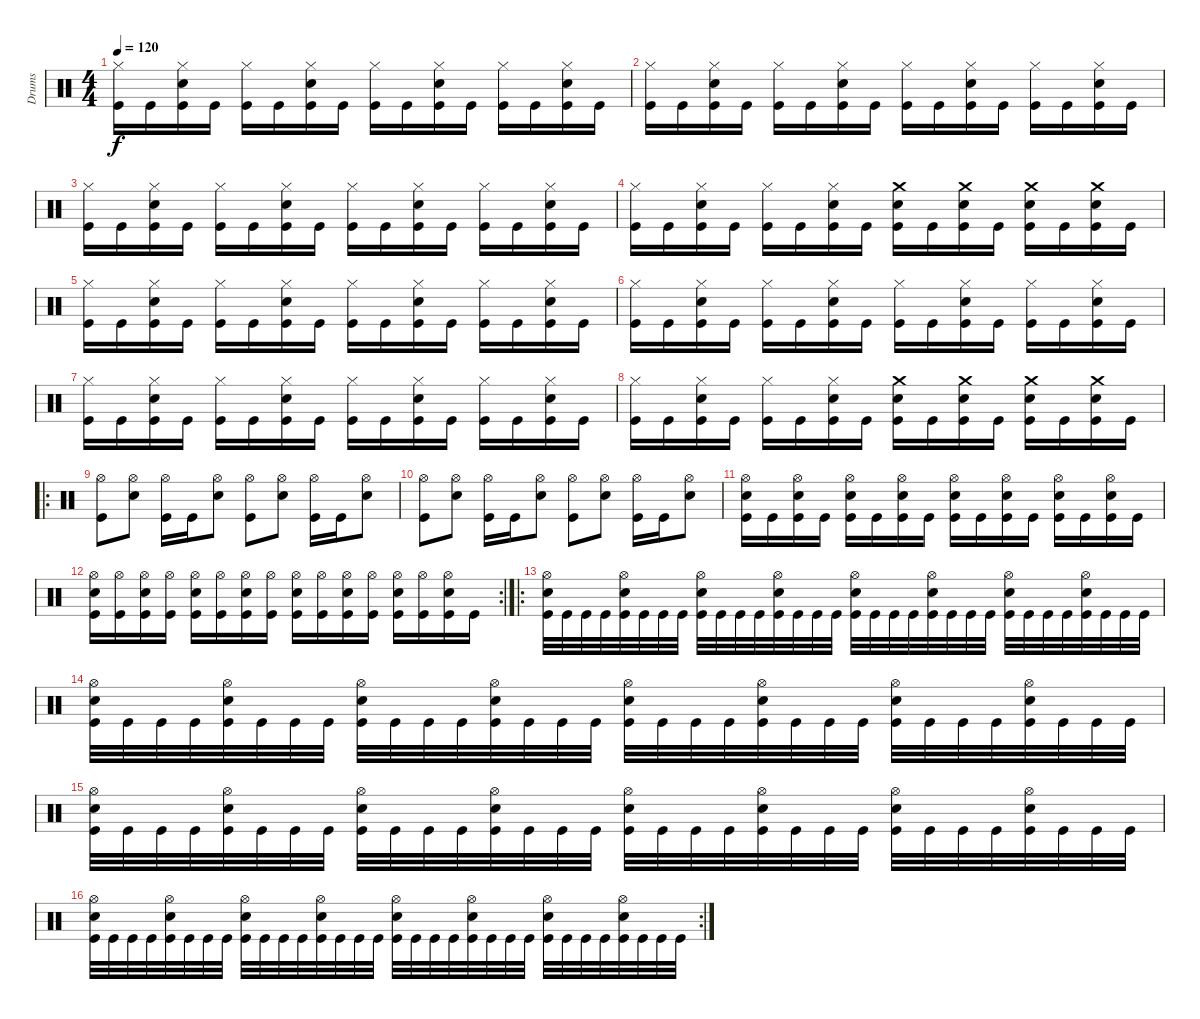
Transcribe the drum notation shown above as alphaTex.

\track ("Drums" "Drums") {instrument percussion}
\staff {score}
\articulation defaults
\ts (4 4)
\tempo 120
\clef neutral
\ks c
("Hi-Hat (closed)" "Kick (hit)").16{dy f} "Kick (hit)".16 ("Hi-Hat (closed)" "Snare (hit) 2" "Kick (hit)").16 "Kick (hit)".16 ("Hi-Hat (closed)" "Kick (hit)").16 "Kick (hit)".16 ("Hi-Hat (closed)" "Snare (hit) 2" "Kick (hit)").16 "Kick (hit)".16 ("Hi-Hat (closed)" "Kick (hit)").16 "Kick (hit)".16 ("Hi-Hat (closed)" "Snare (hit) 2" "Kick (hit)").16 "Kick (hit)".16 ("Hi-Hat (closed)" "Kick (hit)").16 "Kick (hit)".16 ("Hi-Hat (closed)" "Snare (hit) 2" "Kick (hit)").16 "Kick (hit)".16 |
("Hi-Hat (closed)" "Kick (hit)").16 "Kick (hit)".16 ("Hi-Hat (closed)" "Snare (hit) 2" "Kick (hit)").16 "Kick (hit)".16 ("Hi-Hat (closed)" "Kick (hit)").16 "Kick (hit)".16 ("Hi-Hat (closed)" "Snare (hit) 2" "Kick (hit)").16 "Kick (hit)".16 ("Hi-Hat (closed)" "Kick (hit)").16 "Kick (hit)".16 ("Hi-Hat (closed)" "Snare (hit) 2" "Kick (hit)").16 "Kick (hit)".16 ("Hi-Hat (closed)" "Kick (hit)").16 "Kick (hit)".16 ("Hi-Hat (closed)" "Snare (hit) 2" "Kick (hit)").16 "Kick (hit)".16 |
("Hi-Hat (closed)" "Kick (hit)").16 "Kick (hit)".16 ("Hi-Hat (closed)" "Snare (hit) 2" "Kick (hit)").16 "Kick (hit)".16 ("Hi-Hat (closed)" "Kick (hit)").16 "Kick (hit)".16 ("Hi-Hat (closed)" "Snare (hit) 2" "Kick (hit)").16 "Kick (hit)".16 ("Hi-Hat (closed)" "Kick (hit)").16 "Kick (hit)".16 ("Hi-Hat (closed)" "Snare (hit) 2" "Kick (hit)").16 "Kick (hit)".16 ("Hi-Hat (closed)" "Kick (hit)").16 "Kick (hit)".16 ("Hi-Hat (closed)" "Snare (hit) 2" "Kick (hit)").16 "Kick (hit)".16 |
("Hi-Hat (closed)" "Kick (hit)").16 "Kick (hit)".16 ("Hi-Hat (closed)" "Snare (hit) 2" "Kick (hit)").16 "Kick (hit)".16 ("Hi-Hat (closed)" "Kick (hit)").16 "Kick (hit)".16 ("Hi-Hat (closed)" "Snare (hit) 2" "Kick (hit)").16 "Kick (hit)".16 ("Crash medium (hit)" "Snare (hit) 2" "Kick (hit)").16 "Kick (hit)".16 ("Crash medium (hit)" "Snare (hit) 2" "Kick (hit)").16 "Kick (hit)".16 ("Crash medium (hit)" "Snare (hit) 2" "Kick (hit)").16 "Kick (hit)".16 ("Crash medium (hit)" "Snare (hit) 2" "Kick (hit)").16 "Kick (hit)".16 |
("Hi-Hat (closed)" "Kick (hit)").16 "Kick (hit)".16 ("Hi-Hat (closed)" "Snare (hit) 2" "Kick (hit)").16 "Kick (hit)".16 ("Hi-Hat (closed)" "Kick (hit)").16 "Kick (hit)".16 ("Hi-Hat (closed)" "Snare (hit) 2" "Kick (hit)").16 "Kick (hit)".16 ("Hi-Hat (closed)" "Kick (hit)").16 "Kick (hit)".16 ("Hi-Hat (closed)" "Snare (hit) 2" "Kick (hit)").16 "Kick (hit)".16 ("Hi-Hat (closed)" "Kick (hit)").16 "Kick (hit)".16 ("Hi-Hat (closed)" "Snare (hit) 2" "Kick (hit)").16 "Kick (hit)".16 |
("Hi-Hat (closed)" "Kick (hit)").16 "Kick (hit)".16 ("Hi-Hat (closed)" "Snare (hit) 2" "Kick (hit)").16 "Kick (hit)".16 ("Hi-Hat (closed)" "Kick (hit)").16 "Kick (hit)".16 ("Hi-Hat (closed)" "Snare (hit) 2" "Kick (hit)").16 "Kick (hit)".16 ("Hi-Hat (closed)" "Kick (hit)").16 "Kick (hit)".16 ("Hi-Hat (closed)" "Snare (hit) 2" "Kick (hit)").16 "Kick (hit)".16 ("Hi-Hat (closed)" "Kick (hit)").16 "Kick (hit)".16 ("Hi-Hat (closed)" "Snare (hit) 2" "Kick (hit)").16 "Kick (hit)".16 |
("Hi-Hat (closed)" "Kick (hit)").16 "Kick (hit)".16 ("Hi-Hat (closed)" "Snare (hit) 2" "Kick (hit)").16 "Kick (hit)".16 ("Hi-Hat (closed)" "Kick (hit)").16 "Kick (hit)".16 ("Hi-Hat (closed)" "Snare (hit) 2" "Kick (hit)").16 "Kick (hit)".16 ("Hi-Hat (closed)" "Kick (hit)").16 "Kick (hit)".16 ("Hi-Hat (closed)" "Snare (hit) 2" "Kick (hit)").16 "Kick (hit)".16 ("Hi-Hat (closed)" "Kick (hit)").16 "Kick (hit)".16 ("Hi-Hat (closed)" "Snare (hit) 2" "Kick (hit)").16 "Kick (hit)".16 |
("Hi-Hat (closed)" "Kick (hit)").16 "Kick (hit)".16 ("Hi-Hat (closed)" "Snare (hit) 2" "Kick (hit)").16 "Kick (hit)".16 ("Hi-Hat (closed)" "Kick (hit)").16 "Kick (hit)".16 ("Hi-Hat (closed)" "Snare (hit) 2" "Kick (hit)").16 "Kick (hit)".16 ("Crash medium (hit)" "Snare (hit) 2" "Kick (hit)").16 "Kick (hit)".16 ("Crash medium (hit)" "Snare (hit) 2" "Kick (hit)").16 "Kick (hit)".16 ("Crash medium (hit)" "Snare (hit) 2" "Kick (hit)").16 "Kick (hit)".16 ("Crash medium (hit)" "Snare (hit) 2" "Kick (hit)").16 "Kick (hit)".16 |
\ro
("Hi-Hat (open)" "Kick (hit)").8 ("Hi-Hat (open)" "Snare (hit) 2").8 ("Hi-Hat (open)" "Kick (hit)").16 "Kick (hit)".16 ("Hi-Hat (open)" "Snare (hit) 2").8 ("Hi-Hat (open)" "Kick (hit)").8 ("Hi-Hat (open)" "Snare (hit) 2").8 ("Hi-Hat (open)" "Kick (hit)").16 "Kick (hit)".16 ("Hi-Hat (open)" "Snare (hit) 2").8 |
("Hi-Hat (open)" "Kick (hit)").8 ("Hi-Hat (open)" "Snare (hit) 2").8 ("Hi-Hat (open)" "Kick (hit)").16 "Kick (hit)".16 ("Hi-Hat (open)" "Snare (hit) 2").8 ("Hi-Hat (open)" "Kick (hit)").8 ("Hi-Hat (open)" "Snare (hit) 2").8 ("Hi-Hat (open)" "Kick (hit)").16 "Kick (hit)".16 ("Hi-Hat (open)" "Snare (hit) 2").8 |
("Hi-Hat (open)" "Snare (hit) 2" "Kick (hit)").16 "Kick (hit)".16 ("Hi-Hat (open)" "Snare (hit) 2" "Kick (hit)").16 "Kick (hit)".16 ("Hi-Hat (open)" "Snare (hit) 2" "Kick (hit)").16 "Kick (hit)".16 ("Hi-Hat (open)" "Snare (hit) 2" "Kick (hit)").16 "Kick (hit)".16 ("Hi-Hat (open)" "Snare (hit) 2" "Kick (hit)").16 "Kick (hit)".16 ("Hi-Hat (open)" "Snare (hit) 2" "Kick (hit)").16 "Kick (hit)".16 ("Hi-Hat (open)" "Snare (hit) 2" "Kick (hit)").16 "Kick (hit)".16 ("Hi-Hat (open)" "Snare (hit) 2" "Kick (hit)").16 "Kick (hit)".16 |
\rc 2
("Hi-Hat (open)" "Snare (hit) 2" "Kick (hit)").16 ("Hi-Hat (open)" "Kick (hit)").16 ("Hi-Hat (open)" "Snare (hit) 2" "Kick (hit)").16 ("Hi-Hat (open)" "Kick (hit)").16 ("Hi-Hat (open)" "Snare (hit) 2" "Kick (hit)").16 ("Hi-Hat (open)" "Kick (hit)").16 ("Hi-Hat (open)" "Snare (hit) 2" "Kick (hit)").16 ("Hi-Hat (open)" "Kick (hit)").16 ("Hi-Hat (open)" "Snare (hit) 2" "Kick (hit)").16 ("Hi-Hat (open)" "Kick (hit)").16 ("Hi-Hat (open)" "Snare (hit) 2" "Kick (hit)").16 ("Hi-Hat (open)" "Kick (hit)").16 ("Hi-Hat (open)" "Snare (hit) 2" "Kick (hit)").16 ("Hi-Hat (open)" "Kick (hit)").16 ("Hi-Hat (open)" "Snare (hit) 2" "Kick (hit)").16 "Kick (hit)".16 |
\ro
("Hi-Hat (open)" "Snare (hit) 2" "Kick (hit)").32 "Kick (hit)".32 "Kick (hit)".32 "Kick (hit)".32 ("Hi-Hat (open)" "Snare (hit) 2" "Kick (hit)").32 "Kick (hit)".32 "Kick (hit)".32 "Kick (hit)".32 ("Hi-Hat (open)" "Snare (hit) 2" "Kick (hit)").32 "Kick (hit)".32 "Kick (hit)".32 "Kick (hit)".32 ("Hi-Hat (open)" "Snare (hit) 2" "Kick (hit)").32 "Kick (hit)".32 "Kick (hit)".32 "Kick (hit)".32 ("Hi-Hat (open)" "Snare (hit) 2" "Kick (hit)").32 "Kick (hit)".32 "Kick (hit)".32 "Kick (hit)".32 ("Hi-Hat (open)" "Snare (hit) 2" "Kick (hit)").32 "Kick (hit)".32 "Kick (hit)".32 "Kick (hit)".32 ("Hi-Hat (open)" "Snare (hit) 2" "Kick (hit)").32 "Kick (hit)".32 "Kick (hit)".32 "Kick (hit)".32 ("Hi-Hat (open)" "Snare (hit) 2" "Kick (hit)").32 "Kick (hit)".32 "Kick (hit)".32 "Kick (hit)".32 |
("Hi-Hat (open)" "Snare (hit) 2" "Kick (hit)").32 "Kick (hit)".32 "Kick (hit)".32 "Kick (hit)".32 ("Hi-Hat (open)" "Snare (hit) 2" "Kick (hit)").32 "Kick (hit)".32 "Kick (hit)".32 "Kick (hit)".32 ("Hi-Hat (open)" "Snare (hit) 2" "Kick (hit)").32 "Kick (hit)".32 "Kick (hit)".32 "Kick (hit)".32 ("Hi-Hat (open)" "Snare (hit) 2" "Kick (hit)").32 "Kick (hit)".32 "Kick (hit)".32 "Kick (hit)".32 ("Hi-Hat (open)" "Snare (hit) 2" "Kick (hit)").32 "Kick (hit)".32 "Kick (hit)".32 "Kick (hit)".32 ("Hi-Hat (open)" "Snare (hit) 2" "Kick (hit)").32 "Kick (hit)".32 "Kick (hit)".32 "Kick (hit)".32 ("Hi-Hat (open)" "Snare (hit) 2" "Kick (hit)").32 "Kick (hit)".32 "Kick (hit)".32 "Kick (hit)".32 ("Hi-Hat (open)" "Snare (hit) 2" "Kick (hit)").32 "Kick (hit)".32 "Kick (hit)".32 "Kick (hit)".32 |
("Hi-Hat (open)" "Snare (hit) 2" "Kick (hit)").32 "Kick (hit)".32 "Kick (hit)".32 "Kick (hit)".32 ("Hi-Hat (open)" "Snare (hit) 2" "Kick (hit)").32 "Kick (hit)".32 "Kick (hit)".32 "Kick (hit)".32 ("Hi-Hat (open)" "Snare (hit) 2" "Kick (hit)").32 "Kick (hit)".32 "Kick (hit)".32 "Kick (hit)".32 ("Hi-Hat (open)" "Snare (hit) 2" "Kick (hit)").32 "Kick (hit)".32 "Kick (hit)".32 "Kick (hit)".32 ("Hi-Hat (open)" "Snare (hit) 2" "Kick (hit)").32 "Kick (hit)".32 "Kick (hit)".32 "Kick (hit)".32 ("Hi-Hat (open)" "Snare (hit) 2" "Kick (hit)").32 "Kick (hit)".32 "Kick (hit)".32 "Kick (hit)".32 ("Hi-Hat (open)" "Snare (hit) 2" "Kick (hit)").32 "Kick (hit)".32 "Kick (hit)".32 "Kick (hit)".32 ("Hi-Hat (open)" "Snare (hit) 2" "Kick (hit)").32 "Kick (hit)".32 "Kick (hit)".32 "Kick (hit)".32 |
\rc 2
("Hi-Hat (open)" "Snare (hit) 2" "Kick (hit)").32 "Kick (hit)".32 "Kick (hit)".32 "Kick (hit)".32 ("Hi-Hat (open)" "Snare (hit) 2" "Kick (hit)").32 "Kick (hit)".32 "Kick (hit)".32 "Kick (hit)".32 ("Hi-Hat (open)" "Snare (hit) 2" "Kick (hit)").32 "Kick (hit)".32 "Kick (hit)".32 "Kick (hit)".32 ("Hi-Hat (open)" "Snare (hit) 2" "Kick (hit)").32 "Kick (hit)".32 "Kick (hit)".32 "Kick (hit)".32 ("Hi-Hat (open)" "Snare (hit) 2" "Kick (hit)").32 "Kick (hit)".32 "Kick (hit)".32 "Kick (hit)".32 ("Hi-Hat (open)" "Snare (hit) 2" "Kick (hit)").32 "Kick (hit)".32 "Kick (hit)".32 "Kick (hit)".32 ("Hi-Hat (open)" "Snare (hit) 2" "Kick (hit)").32 "Kick (hit)".32 "Kick (hit)".32 "Kick (hit)".32 ("Hi-Hat (open)" "Snare (hit) 2" "Kick (hit)").32 "Kick (hit)".32 "Kick (hit)".32 "Kick (hit)".32
